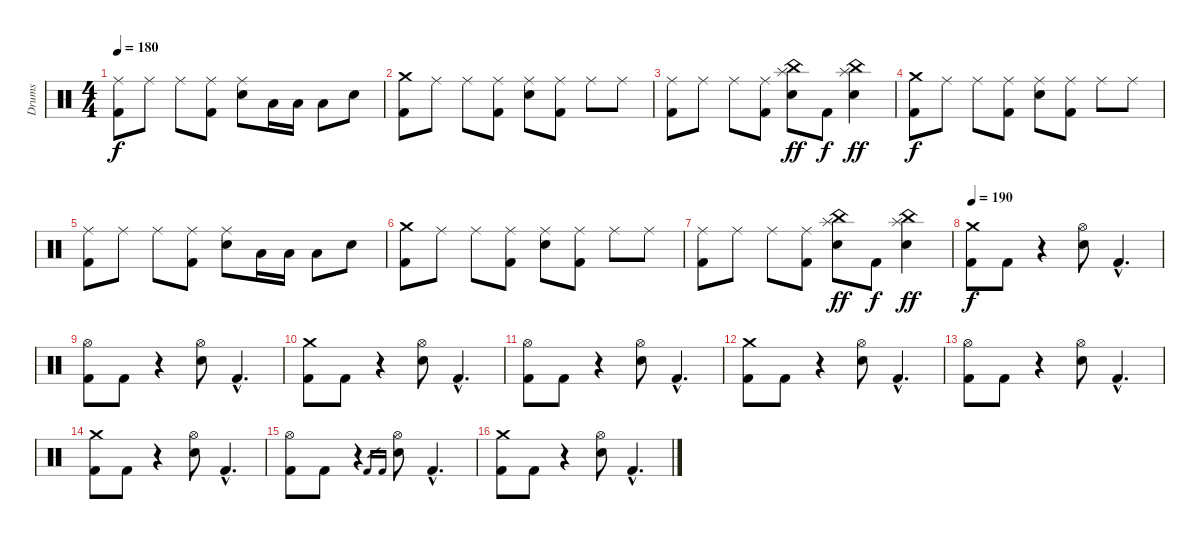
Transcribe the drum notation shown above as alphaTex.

\track ("Drums" "Drums") {instrument percussion}
\staff {score}
\articulation defaults
\ts (4 4)
\tempo 180
\clef neutral
\ks c
("Kick (hit) 2" "Ride (middle)").8{dy f} "Ride (middle)".8 "Ride (middle)".8 ("Kick (hit) 2" "Ride (middle)").8 ("Electric Snare (hit)" "Ride (middle)").8 "Low Tom (hit)".16 "Low Tom (hit)".16 "Low Tom (hit)".8 "Electric Snare (hit)".8 |
("Kick (hit) 2" "Crash medium (hit)").8 "Ride (middle)".8 "Ride (middle)".8 ("Kick (hit) 2" "Ride (middle)").8 ("Electric Snare (hit)" "Ride (middle)").8 ("Kick (hit) 2" "Ride (middle)").8 "Ride (middle)".8 "Ride (middle)".8 |
("Kick (hit) 2" "Ride (middle)").8 "Ride (middle)".8 "Ride (middle)".8 ("Kick (hit) 2" "Ride (middle)").8 ("China (hit)" "Electric Snare (hit)" "Splash (hit)").8{dy ff} "Kick (hit) 2".8{dy f} ("China (hit)" "Electric Snare (hit)" "Splash (hit)").4{dy ff} |
("Kick (hit) 2" "Crash medium (hit)").8{dy f} "Ride (middle)".8 "Ride (middle)".8 ("Kick (hit) 2" "Ride (middle)").8 ("Electric Snare (hit)" "Ride (middle)").8 ("Kick (hit) 2" "Ride (middle)").8 "Ride (middle)".8 "Ride (middle)".8 |
("Kick (hit) 2" "Ride (middle)").8 "Ride (middle)".8 "Ride (middle)".8 ("Kick (hit) 2" "Ride (middle)").8 ("Electric Snare (hit)" "Ride (middle)").8 "Low Tom (hit)".16 "Low Tom (hit)".16 "Low Tom (hit)".8 "Electric Snare (hit)".8 |
("Kick (hit) 2" "Crash medium (hit)").8 "Ride (middle)".8 "Ride (middle)".8 ("Kick (hit) 2" "Ride (middle)").8 ("Electric Snare (hit)" "Ride (middle)").8 ("Kick (hit) 2" "Ride (middle)").8 "Ride (middle)".8 "Ride (middle)".8 |
("Kick (hit) 2" "Ride (middle)").8 "Ride (middle)".8 "Ride (middle)".8 ("Kick (hit) 2" "Ride (middle)").8 ("China (hit)" "Electric Snare (hit)" "Splash (hit)").8{dy ff} "Kick (hit) 2".8{dy f} ("China (hit)" "Electric Snare (hit)" "Splash (hit)").4{dy ff} |
\tempo 190
("Kick (hit) 2" "Crash medium (hit)").8{dy f} "Kick (hit) 2".8 r.4 ("Electric Snare (hit)" "Hi-Hat (open)").8 "Kick (hit) 2"{hac}.4{d} |
("Kick (hit) 2" "Hi-Hat (open)").8 "Kick (hit) 2".8 r.4 ("Electric Snare (hit)" "Hi-Hat (open)").8 "Kick (hit) 2"{hac}.4{d} |
("Kick (hit) 2" "Crash medium (hit)").8 "Kick (hit) 2".8 r.4 ("Electric Snare (hit)" "Hi-Hat (open)").8 "Kick (hit) 2"{hac}.4{d} |
("Kick (hit) 2" "Hi-Hat (open)").8 "Kick (hit) 2".8 r.4 ("Electric Snare (hit)" "Hi-Hat (open)").8 "Kick (hit) 2"{hac}.4{d} |
("Kick (hit) 2" "Crash medium (hit)").8 "Kick (hit) 2".8 r.4 ("Electric Snare (hit)" "Hi-Hat (open)").8 "Kick (hit) 2"{hac}.4{d} |
("Kick (hit) 2" "Hi-Hat (open)").8 "Kick (hit) 2".8 r.4 ("Electric Snare (hit)" "Hi-Hat (open)").8 "Kick (hit) 2"{hac}.4{d} |
("Kick (hit) 2" "Crash medium (hit)").8 "Kick (hit) 2".8 r.4 ("Electric Snare (hit)" "Hi-Hat (open)").8 "Kick (hit) 2"{hac}.4{d} |
("Kick (hit) 2" "Hi-Hat (open)").8 "Kick (hit) 2".8 r.4 "Kick (hit) 2".16{gr} "Kick (hit) 2".16{gr} ("Electric Snare (hit)" "Hi-Hat (open)").8 "Kick (hit) 2"{hac}.4{d} |
("Kick (hit) 2" "Crash medium (hit)").8 "Kick (hit) 2".8 r.4 ("Electric Snare (hit)" "Hi-Hat (open)").8 "Kick (hit) 2"{hac}.4{d}
